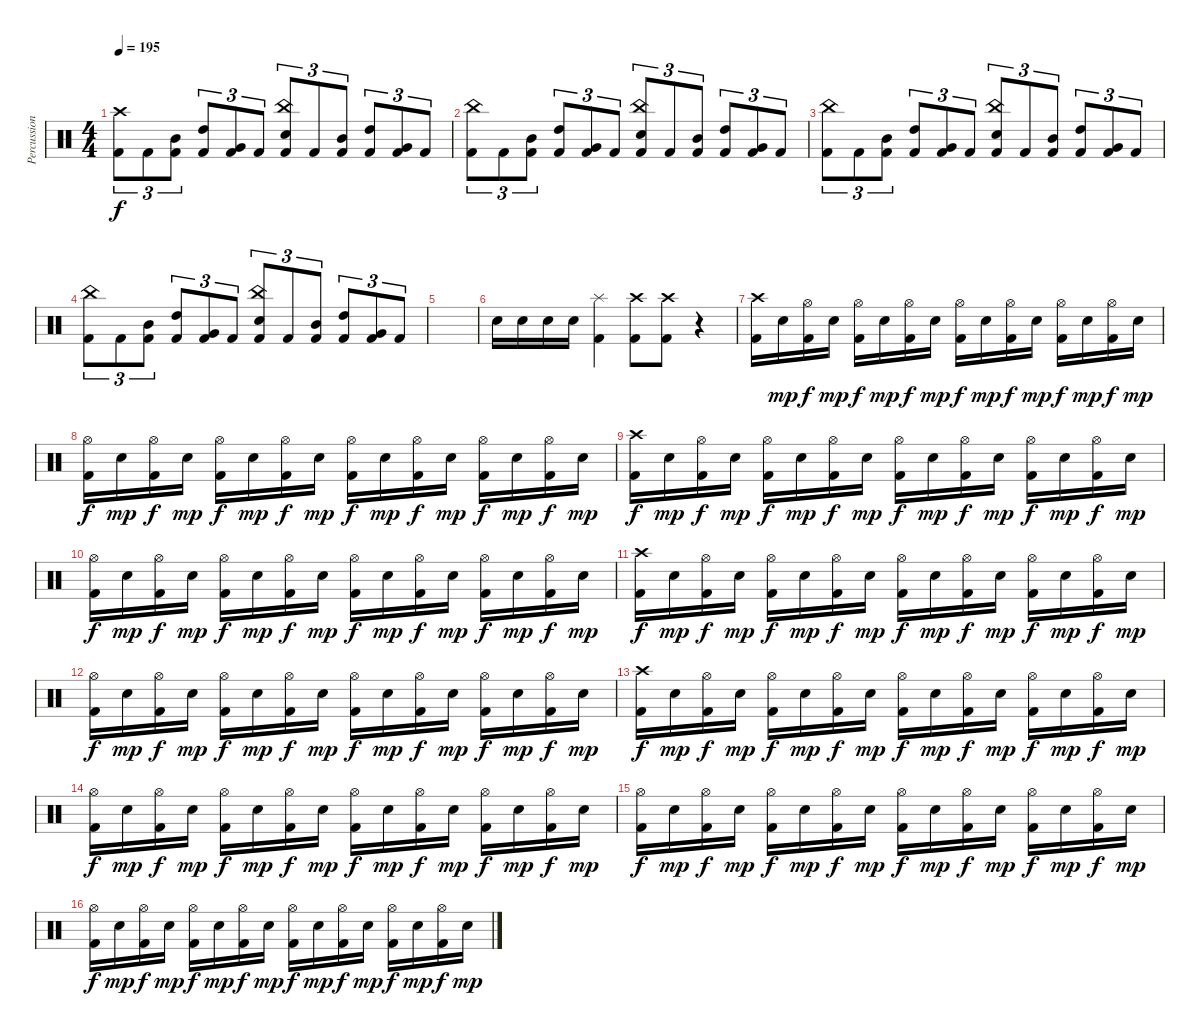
\track ("Percussion" "Percussion") {instrument percussion}
\staff {score}
\articulation defaults
\ts (4 4)
\tempo 195
\clef neutral
\ks c
("Crash high (hit)" "Kick (hit) 2").8{tu (3 2) dy f} "Kick (hit) 2".8{tu (3 2)} ("Kick (hit) 2" "Mid Tom (hit)").8{tu (3 2)} ("Kick (hit) 2" "High Tom (hit)").8{tu (3 2)} ("Kick (hit) 2" "Very Low Tom (hit)").8{tu (3 2)} "Kick (hit) 2".8{tu (3 2)} ("China (hit)" "Snare (hit) 2" "Kick (hit) 2").8{tu (3 2)} "Kick (hit) 2".8{tu (3 2)} ("Kick (hit) 2" "Mid Tom (hit)").8{tu (3 2)} ("Kick (hit) 2" "High Tom (hit)").8{tu (3 2)} ("Kick (hit) 2" "Very Low Tom (hit)").8{tu (3 2)} "Kick (hit) 2".8{tu (3 2)} |
("China (hit)" "Kick (hit) 2").8{tu (3 2)} "Kick (hit) 2".8{tu (3 2)} ("Kick (hit) 2" "Mid Tom (hit)").8{tu (3 2)} ("Kick (hit) 2" "High Tom (hit)").8{tu (3 2)} ("Kick (hit) 2" "Very Low Tom (hit)").8{tu (3 2)} "Kick (hit) 2".8{tu (3 2)} ("China (hit)" "Snare (hit) 2" "Kick (hit) 2").8{tu (3 2)} "Kick (hit) 2".8{tu (3 2)} ("Kick (hit) 2" "Mid Tom (hit)").8{tu (3 2)} ("Kick (hit) 2" "High Tom (hit)").8{tu (3 2)} ("Kick (hit) 2" "Very Low Tom (hit)").8{tu (3 2)} "Kick (hit) 2".8{tu (3 2)} |
("China (hit)" "Kick (hit) 2").8{tu (3 2)} "Kick (hit) 2".8{tu (3 2)} ("Kick (hit) 2" "Mid Tom (hit)").8{tu (3 2)} ("Kick (hit) 2" "High Tom (hit)").8{tu (3 2)} ("Kick (hit) 2" "Very Low Tom (hit)").8{tu (3 2)} "Kick (hit) 2".8{tu (3 2)} ("China (hit)" "Snare (hit) 2" "Kick (hit) 2").8{tu (3 2)} "Kick (hit) 2".8{tu (3 2)} ("Kick (hit) 2" "Mid Tom (hit)").8{tu (3 2)} ("Kick (hit) 2" "High Tom (hit)").8{tu (3 2)} ("Kick (hit) 2" "Very Low Tom (hit)").8{tu (3 2)} "Kick (hit) 2".8{tu (3 2)} |
("China (hit)" "Kick (hit) 2").8{tu (3 2)} "Kick (hit) 2".8{tu (3 2)} ("Kick (hit) 2" "Mid Tom (hit)").8{tu (3 2)} ("Kick (hit) 2" "High Tom (hit)").8{tu (3 2)} ("Kick (hit) 2" "Very Low Tom (hit)").8{tu (3 2)} "Kick (hit) 2".8{tu (3 2)} ("China (hit)" "Snare (hit) 2" "Kick (hit) 2").8{tu (3 2)} "Kick (hit) 2".8{tu (3 2)} ("Kick (hit) 2" "Mid Tom (hit)").8{tu (3 2)} ("Kick (hit) 2" "High Tom (hit)").8{tu (3 2)} ("Kick (hit) 2" "Very Low Tom (hit)").8{tu (3 2)} "Kick (hit) 2".8{tu (3 2)} |
|
"Snare (hit) 2".16 "Snare (hit) 2".16 "Snare (hit) 2".16 "Snare (hit) 2".16 ("Splash (hit)" "Kick (hit) 2").4 ("Crash high (hit)" "Kick (hit) 2").8 ("Crash high (hit)" "Kick (hit) 2").8 r.4 |
("Crash high (hit)" "Kick (hit) 2").16 "Snare (hit) 2".16{dy mp} ("Hi-Hat (open)" "Kick (hit) 2").16{dy f} "Snare (hit) 2".16{dy mp} ("Hi-Hat (open)" "Kick (hit) 2").16{dy f} "Snare (hit) 2".16{dy mp} ("Hi-Hat (open)" "Kick (hit) 2").16{dy f} "Snare (hit) 2".16{dy mp} ("Hi-Hat (open)" "Kick (hit) 2").16{dy f} "Snare (hit) 2".16{dy mp} ("Hi-Hat (open)" "Kick (hit) 2").16{dy f} "Snare (hit) 2".16{dy mp} ("Hi-Hat (open)" "Kick (hit) 2").16{dy f} "Snare (hit) 2".16{dy mp} ("Hi-Hat (open)" "Kick (hit) 2").16{dy f} "Snare (hit) 2".16{dy mp} |
("Hi-Hat (open)" "Kick (hit) 2").16{dy f} "Snare (hit) 2".16{dy mp} ("Hi-Hat (open)" "Kick (hit) 2").16{dy f} "Snare (hit) 2".16{dy mp} ("Hi-Hat (open)" "Kick (hit) 2").16{dy f} "Snare (hit) 2".16{dy mp} ("Hi-Hat (open)" "Kick (hit) 2").16{dy f} "Snare (hit) 2".16{dy mp} ("Hi-Hat (open)" "Kick (hit) 2").16{dy f} "Snare (hit) 2".16{dy mp} ("Hi-Hat (open)" "Kick (hit) 2").16{dy f} "Snare (hit) 2".16{dy mp} ("Hi-Hat (open)" "Kick (hit) 2").16{dy f} "Snare (hit) 2".16{dy mp} ("Hi-Hat (open)" "Kick (hit) 2").16{dy f} "Snare (hit) 2".16{dy mp} |
("Crash high (hit)" "Kick (hit) 2").16{dy f} "Snare (hit) 2".16{dy mp} ("Hi-Hat (open)" "Kick (hit) 2").16{dy f} "Snare (hit) 2".16{dy mp} ("Hi-Hat (open)" "Kick (hit) 2").16{dy f} "Snare (hit) 2".16{dy mp} ("Hi-Hat (open)" "Kick (hit) 2").16{dy f} "Snare (hit) 2".16{dy mp} ("Hi-Hat (open)" "Kick (hit) 2").16{dy f} "Snare (hit) 2".16{dy mp} ("Hi-Hat (open)" "Kick (hit) 2").16{dy f} "Snare (hit) 2".16{dy mp} ("Hi-Hat (open)" "Kick (hit) 2").16{dy f} "Snare (hit) 2".16{dy mp} ("Hi-Hat (open)" "Kick (hit) 2").16{dy f} "Snare (hit) 2".16{dy mp} |
("Hi-Hat (open)" "Kick (hit) 2").16{dy f} "Snare (hit) 2".16{dy mp} ("Hi-Hat (open)" "Kick (hit) 2").16{dy f} "Snare (hit) 2".16{dy mp} ("Hi-Hat (open)" "Kick (hit) 2").16{dy f} "Snare (hit) 2".16{dy mp} ("Hi-Hat (open)" "Kick (hit) 2").16{dy f} "Snare (hit) 2".16{dy mp} ("Hi-Hat (open)" "Kick (hit) 2").16{dy f} "Snare (hit) 2".16{dy mp} ("Hi-Hat (open)" "Kick (hit) 2").16{dy f} "Snare (hit) 2".16{dy mp} ("Hi-Hat (open)" "Kick (hit) 2").16{dy f} "Snare (hit) 2".16{dy mp} ("Hi-Hat (open)" "Kick (hit) 2").16{dy f} "Snare (hit) 2".16{dy mp} |
("Crash high (hit)" "Kick (hit) 2").16{dy f} "Snare (hit) 2".16{dy mp} ("Hi-Hat (open)" "Kick (hit) 2").16{dy f} "Snare (hit) 2".16{dy mp} ("Hi-Hat (open)" "Kick (hit) 2").16{dy f} "Snare (hit) 2".16{dy mp} ("Hi-Hat (open)" "Kick (hit) 2").16{dy f} "Snare (hit) 2".16{dy mp} ("Hi-Hat (open)" "Kick (hit) 2").16{dy f} "Snare (hit) 2".16{dy mp} ("Hi-Hat (open)" "Kick (hit) 2").16{dy f} "Snare (hit) 2".16{dy mp} ("Hi-Hat (open)" "Kick (hit) 2").16{dy f} "Snare (hit) 2".16{dy mp} ("Hi-Hat (open)" "Kick (hit) 2").16{dy f} "Snare (hit) 2".16{dy mp} |
("Hi-Hat (open)" "Kick (hit) 2").16{dy f} "Snare (hit) 2".16{dy mp} ("Hi-Hat (open)" "Kick (hit) 2").16{dy f} "Snare (hit) 2".16{dy mp} ("Hi-Hat (open)" "Kick (hit) 2").16{dy f} "Snare (hit) 2".16{dy mp} ("Hi-Hat (open)" "Kick (hit) 2").16{dy f} "Snare (hit) 2".16{dy mp} ("Hi-Hat (open)" "Kick (hit) 2").16{dy f} "Snare (hit) 2".16{dy mp} ("Hi-Hat (open)" "Kick (hit) 2").16{dy f} "Snare (hit) 2".16{dy mp} ("Hi-Hat (open)" "Kick (hit) 2").16{dy f} "Snare (hit) 2".16{dy mp} ("Hi-Hat (open)" "Kick (hit) 2").16{dy f} "Snare (hit) 2".16{dy mp} |
("Crash high (hit)" "Kick (hit) 2").16{dy f} "Snare (hit) 2".16{dy mp} ("Hi-Hat (open)" "Kick (hit) 2").16{dy f} "Snare (hit) 2".16{dy mp} ("Hi-Hat (open)" "Kick (hit) 2").16{dy f} "Snare (hit) 2".16{dy mp} ("Hi-Hat (open)" "Kick (hit) 2").16{dy f} "Snare (hit) 2".16{dy mp} ("Hi-Hat (open)" "Kick (hit) 2").16{dy f} "Snare (hit) 2".16{dy mp} ("Hi-Hat (open)" "Kick (hit) 2").16{dy f} "Snare (hit) 2".16{dy mp} ("Hi-Hat (open)" "Kick (hit) 2").16{dy f} "Snare (hit) 2".16{dy mp} ("Hi-Hat (open)" "Kick (hit) 2").16{dy f} "Snare (hit) 2".16{dy mp} |
("Hi-Hat (open)" "Kick (hit) 2").16{dy f} "Snare (hit) 2".16{dy mp} ("Hi-Hat (open)" "Kick (hit) 2").16{dy f} "Snare (hit) 2".16{dy mp} ("Hi-Hat (open)" "Kick (hit) 2").16{dy f} "Snare (hit) 2".16{dy mp} ("Hi-Hat (open)" "Kick (hit) 2").16{dy f} "Snare (hit) 2".16{dy mp} ("Hi-Hat (open)" "Kick (hit) 2").16{dy f} "Snare (hit) 2".16{dy mp} ("Hi-Hat (open)" "Kick (hit) 2").16{dy f} "Snare (hit) 2".16{dy mp} ("Hi-Hat (open)" "Kick (hit) 2").16{dy f} "Snare (hit) 2".16{dy mp} ("Hi-Hat (open)" "Kick (hit) 2").16{dy f} "Snare (hit) 2".16{dy mp} |
("Hi-Hat (open)" "Kick (hit) 2").16{dy f} "Snare (hit) 2".16{dy mp} ("Hi-Hat (open)" "Kick (hit) 2").16{dy f} "Snare (hit) 2".16{dy mp} ("Hi-Hat (open)" "Kick (hit) 2").16{dy f} "Snare (hit) 2".16{dy mp} ("Hi-Hat (open)" "Kick (hit) 2").16{dy f} "Snare (hit) 2".16{dy mp} ("Hi-Hat (open)" "Kick (hit) 2").16{dy f} "Snare (hit) 2".16{dy mp} ("Hi-Hat (open)" "Kick (hit) 2").16{dy f} "Snare (hit) 2".16{dy mp} ("Hi-Hat (open)" "Kick (hit) 2").16{dy f} "Snare (hit) 2".16{dy mp} ("Hi-Hat (open)" "Kick (hit) 2").16{dy f} "Snare (hit) 2".16{dy mp} |
("Hi-Hat (open)" "Kick (hit) 2").16{dy f} "Snare (hit) 2".16{dy mp} ("Hi-Hat (open)" "Kick (hit) 2").16{dy f} "Snare (hit) 2".16{dy mp} ("Hi-Hat (open)" "Kick (hit) 2").16{dy f} "Snare (hit) 2".16{dy mp} ("Hi-Hat (open)" "Kick (hit) 2").16{dy f} "Snare (hit) 2".16{dy mp} ("Hi-Hat (open)" "Kick (hit) 2").16{dy f} "Snare (hit) 2".16{dy mp} ("Hi-Hat (open)" "Kick (hit) 2").16{dy f} "Snare (hit) 2".16{dy mp} ("Hi-Hat (open)" "Kick (hit) 2").16{dy f} "Snare (hit) 2".16{dy mp} ("Hi-Hat (open)" "Kick (hit) 2").16{dy f} "Snare (hit) 2".16{dy mp}
